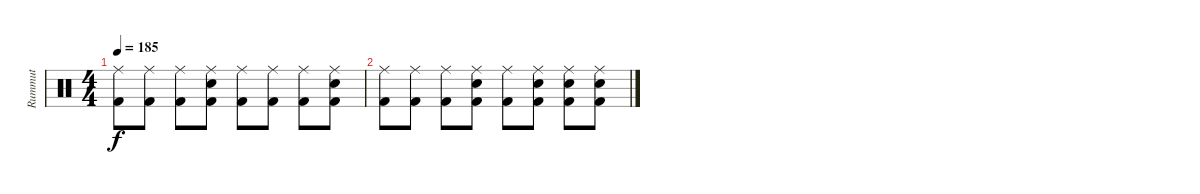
\track ("Rummut" "Rummut") {instrument percussion}
\staff {score}
\articulation defaults
\ts (4 4)
\tempo 185
\clef neutral
\ks c
("Ride (middle)" "Kick (hit) 2").8{dy f} ("Ride (middle)" "Kick (hit) 2").8 ("Ride (middle)" "Kick (hit) 2").8 ("Ride (middle)" "Electric Snare (hit)" "Kick (hit) 2").8 ("Ride (middle)" "Kick (hit) 2").8 ("Ride (middle)" "Kick (hit) 2").8 ("Ride (middle)" "Kick (hit) 2").8 ("Ride (middle)" "Electric Snare (hit)" "Kick (hit) 2").8 |
("Ride (middle)" "Kick (hit) 2").8 ("Ride (middle)" "Kick (hit) 2").8 ("Ride (middle)" "Kick (hit) 2").8 ("Ride (middle)" "Electric Snare (hit)" "Kick (hit) 2").8 ("Ride (middle)" "Kick (hit) 2").8 ("Ride (middle)" "Electric Snare (hit)" "Kick (hit) 2").8 ("Ride (middle)" "Electric Snare (hit)" "Kick (hit) 2").8 ("Ride (middle)" "Electric Snare (hit)" "Kick (hit) 2").8
